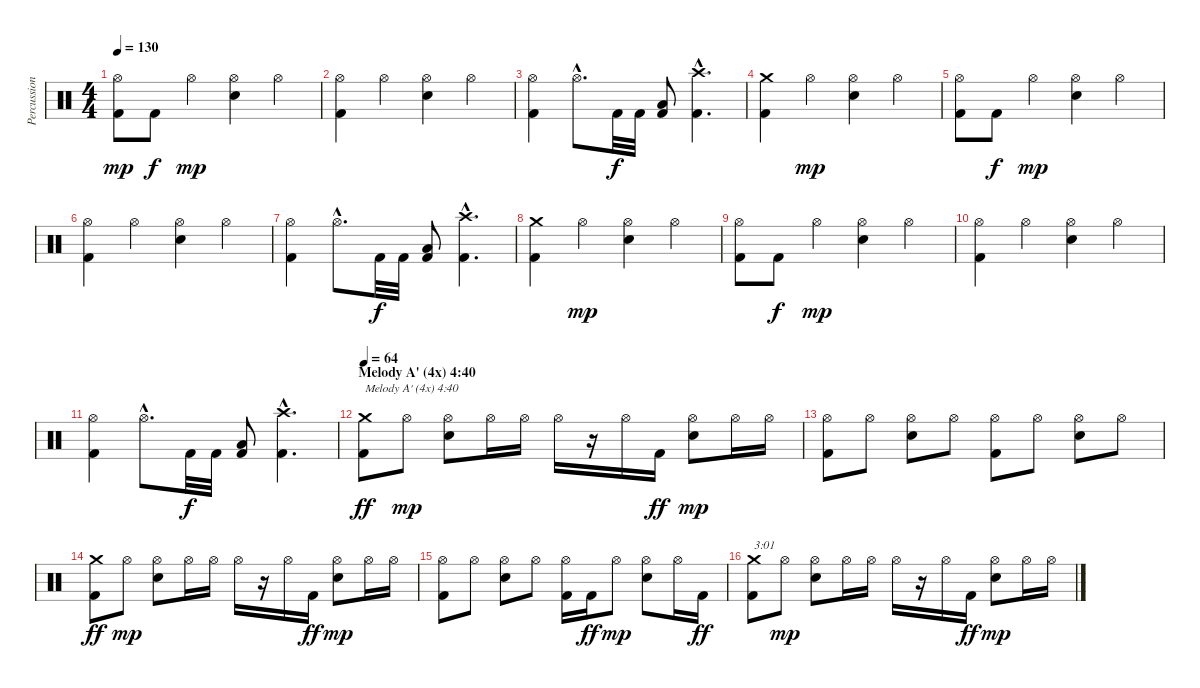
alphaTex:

\track ("Percussion" "Percussion") {instrument percussion}
\staff {score}
\articulation defaults
\ts (4 4)
\tempo 130
\clef neutral
\ks c
("Kick (hit) 2" "Hi-Hat (open)").8{dy mp} "Kick (hit) 2".8{dy f} "Hi-Hat (open)".4{dy mp} ("Electric Snare (hit)" "Hi-Hat (open)").4 "Hi-Hat (open)".4 |
("Kick (hit) 2" "Hi-Hat (open)").4 "Hi-Hat (open)".4 ("Electric Snare (hit)" "Hi-Hat (open)").4 "Hi-Hat (open)".4 |
("Kick (hit) 2" "Hi-Hat (open)").4 "Hi-Hat (open)"{hac}.8{d} "Kick (hit) 2".32{dy f} "Kick (hit) 2".32 ("Kick (hit) 2" "Low Tom (hit)").8 ("Kick (hit) 2"{hac} "Crash high (hit)"{hac}).4{d} |
("Kick (hit) 2" "Crash medium (hit)").4 "Hi-Hat (open)".4{dy mp} ("Electric Snare (hit)" "Hi-Hat (open)").4 "Hi-Hat (open)".4 |
("Kick (hit) 2" "Hi-Hat (open)").8 "Kick (hit) 2".8{dy f} "Hi-Hat (open)".4{dy mp} ("Electric Snare (hit)" "Hi-Hat (open)").4 "Hi-Hat (open)".4 |
("Kick (hit) 2" "Hi-Hat (open)").4 "Hi-Hat (open)".4 ("Electric Snare (hit)" "Hi-Hat (open)").4 "Hi-Hat (open)".4 |
("Kick (hit) 2" "Hi-Hat (open)").4 "Hi-Hat (open)"{hac}.8{d} "Kick (hit) 2".32{dy f} "Kick (hit) 2".32 ("Kick (hit) 2" "Low Tom (hit)").8 ("Kick (hit) 2"{hac} "Crash high (hit)"{hac}).4{d} |
("Kick (hit) 2" "Crash medium (hit)").4 "Hi-Hat (open)".4{dy mp} ("Electric Snare (hit)" "Hi-Hat (open)").4 "Hi-Hat (open)".4 |
("Kick (hit) 2" "Hi-Hat (open)").8 "Kick (hit) 2".8{dy f} "Hi-Hat (open)".4{dy mp} ("Electric Snare (hit)" "Hi-Hat (open)").4 "Hi-Hat (open)".4 |
("Kick (hit) 2" "Hi-Hat (open)").4 "Hi-Hat (open)".4 ("Electric Snare (hit)" "Hi-Hat (open)").4 "Hi-Hat (open)".4 |
("Kick (hit) 2" "Hi-Hat (open)").4 "Hi-Hat (open)"{hac}.8{d} "Kick (hit) 2".32{dy f} "Kick (hit) 2".32 ("Kick (hit) 2" "Low Tom (hit)").8 ("Kick (hit) 2"{hac} "Crash high (hit)"{hac}).4{d} |
\section ("" "Melody A' (4x) 4:40")
\tempo 64
("Kick (hit) 2" "Crash medium (hit)").8{txt "Melody A' (4x) 4:40" dy ff} "Hi-Hat (open)".8{dy mp} ("Electric Snare (hit)" "Hi-Hat (open)").8 "Hi-Hat (open)".16 "Hi-Hat (open)".16 "Hi-Hat (open)".16 r.16 "Hi-Hat (open)".16 "Kick (hit) 2".16{dy ff} ("Electric Snare (hit)" "Hi-Hat (open)").8{dy mp} "Hi-Hat (open)".16 "Hi-Hat (open)".16 |
("Kick (hit) 2" "Hi-Hat (open)").8 "Hi-Hat (open)".8 ("Electric Snare (hit)" "Hi-Hat (open)").8 "Hi-Hat (open)".8 ("Kick (hit) 2" "Hi-Hat (open)").8 "Hi-Hat (open)".8 ("Electric Snare (hit)" "Hi-Hat (open)").8 "Hi-Hat (open)".8 |
("Kick (hit) 2" "Crash medium (hit)").8{dy ff} "Hi-Hat (open)".8{dy mp} ("Electric Snare (hit)" "Hi-Hat (open)").8 "Hi-Hat (open)".16 "Hi-Hat (open)".16 "Hi-Hat (open)".16 r.16 "Hi-Hat (open)".16 "Kick (hit) 2".16{dy ff} ("Electric Snare (hit)" "Hi-Hat (open)").8{dy mp} "Hi-Hat (open)".16 "Hi-Hat (open)".16 |
("Kick (hit) 2" "Hi-Hat (open)").8 "Hi-Hat (open)".8 ("Electric Snare (hit)" "Hi-Hat (open)").8 "Hi-Hat (open)".8 ("Kick (hit) 2" "Hi-Hat (open)").16 "Kick (hit) 2".16{dy ff} "Hi-Hat (open)".8{dy mp} ("Electric Snare (hit)" "Hi-Hat (open)").8 "Hi-Hat (open)".16 "Kick (hit) 2".16{dy ff} |
("Kick (hit) 2" "Crash medium (hit)").8{txt "3:01"} "Hi-Hat (open)".8{dy mp} ("Electric Snare (hit)" "Hi-Hat (open)").8 "Hi-Hat (open)".16 "Hi-Hat (open)".16 "Hi-Hat (open)".16 r.16 "Hi-Hat (open)".16 "Kick (hit) 2".16{dy ff} ("Electric Snare (hit)" "Hi-Hat (open)").8{dy mp} "Hi-Hat (open)".16 "Hi-Hat (open)".16
